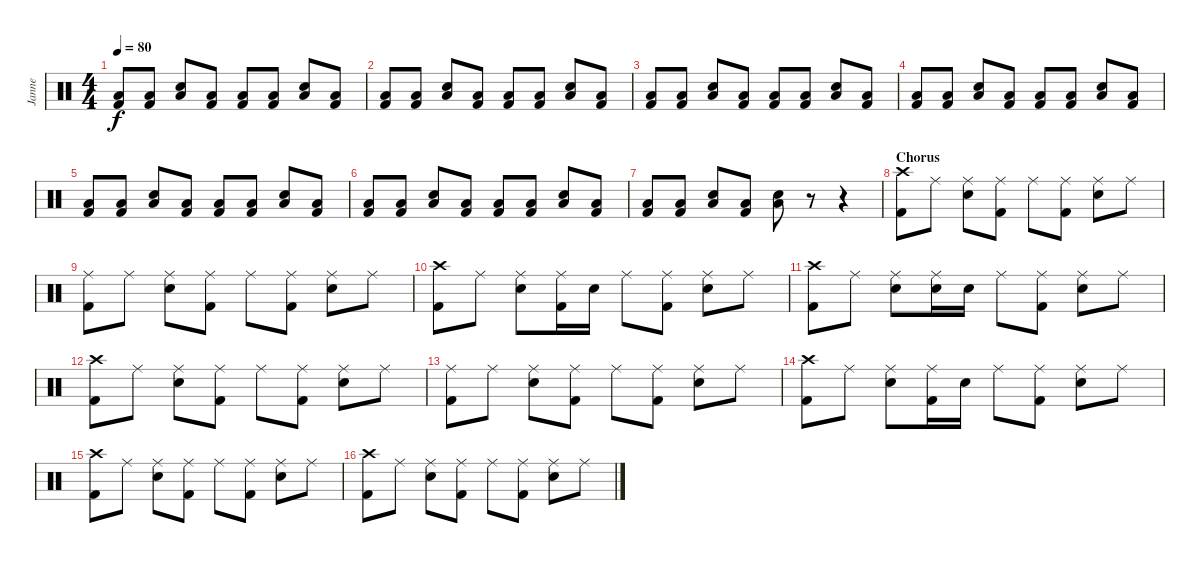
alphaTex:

\track ("Janne" "Janne") {instrument percussion}
\staff {score}
\articulation defaults
\ts (4 4)
\tempo 80
\clef neutral
\ks c
("Low Floor Tom (hit)" "Kick (hit) 2").8{dy f} ("Low Floor Tom (hit)" "Kick (hit) 2").8 ("Low Floor Tom (hit)" "Electric Snare (hit)").8 ("Low Floor Tom (hit)" "Kick (hit) 2").8 ("Low Floor Tom (hit)" "Kick (hit) 2").8 ("Low Floor Tom (hit)" "Kick (hit) 2").8 ("Low Floor Tom (hit)" "Electric Snare (hit)").8 ("Low Floor Tom (hit)" "Kick (hit) 2").8 |
("Low Floor Tom (hit)" "Kick (hit) 2").8 ("Low Floor Tom (hit)" "Kick (hit) 2").8 ("Low Floor Tom (hit)" "Electric Snare (hit)").8 ("Low Floor Tom (hit)" "Kick (hit) 2").8 ("Low Floor Tom (hit)" "Kick (hit) 2").8 ("Low Floor Tom (hit)" "Kick (hit) 2").8 ("Low Floor Tom (hit)" "Electric Snare (hit)").8 ("Low Floor Tom (hit)" "Kick (hit) 2").8 |
("Low Floor Tom (hit)" "Kick (hit) 2").8 ("Low Floor Tom (hit)" "Kick (hit) 2").8 ("Low Floor Tom (hit)" "Electric Snare (hit)").8 ("Low Floor Tom (hit)" "Kick (hit) 2").8 ("Low Floor Tom (hit)" "Kick (hit) 2").8 ("Low Floor Tom (hit)" "Kick (hit) 2").8 ("Low Floor Tom (hit)" "Electric Snare (hit)").8 ("Low Floor Tom (hit)" "Kick (hit) 2").8 |
("Low Floor Tom (hit)" "Kick (hit) 2").8 ("Low Floor Tom (hit)" "Kick (hit) 2").8 ("Low Floor Tom (hit)" "Electric Snare (hit)").8 ("Low Floor Tom (hit)" "Kick (hit) 2").8 ("Low Floor Tom (hit)" "Kick (hit) 2").8 ("Low Floor Tom (hit)" "Kick (hit) 2").8 ("Low Floor Tom (hit)" "Electric Snare (hit)").8 ("Low Floor Tom (hit)" "Kick (hit) 2").8 |
("Low Floor Tom (hit)" "Kick (hit) 2").8 ("Low Floor Tom (hit)" "Kick (hit) 2").8 ("Low Floor Tom (hit)" "Electric Snare (hit)").8 ("Low Floor Tom (hit)" "Kick (hit) 2").8 ("Low Floor Tom (hit)" "Kick (hit) 2").8 ("Low Floor Tom (hit)" "Kick (hit) 2").8 ("Low Floor Tom (hit)" "Electric Snare (hit)").8 ("Low Floor Tom (hit)" "Kick (hit) 2").8 |
("Low Floor Tom (hit)" "Kick (hit) 2").8 ("Low Floor Tom (hit)" "Kick (hit) 2").8 ("Low Floor Tom (hit)" "Electric Snare (hit)").8 ("Low Floor Tom (hit)" "Kick (hit) 2").8 ("Low Floor Tom (hit)" "Kick (hit) 2").8 ("Low Floor Tom (hit)" "Kick (hit) 2").8 ("Low Floor Tom (hit)" "Electric Snare (hit)").8 ("Low Floor Tom (hit)" "Kick (hit) 2").8 |
("Low Floor Tom (hit)" "Kick (hit) 2").8 ("Low Floor Tom (hit)" "Kick (hit) 2").8 ("Low Floor Tom (hit)" "Electric Snare (hit)").8 ("Low Floor Tom (hit)" "Kick (hit) 2").8 ("Low Floor Tom (hit)" "Electric Snare (hit)").8 r.8 r.4 |
\section ("" "Chorus")
("Crash high (hit)" "Kick (hit) 2").8 "Ride (middle)".8 ("Ride (middle)" "Electric Snare (hit)").8 ("Ride (middle)" "Kick (hit) 2").8 "Ride (middle)".8 ("Ride (middle)" "Kick (hit) 2").8 ("Ride (middle)" "Electric Snare (hit)").8 "Ride (middle)".8 |
("Ride (middle)" "Kick (hit) 2").8 "Ride (middle)".8 ("Ride (middle)" "Electric Snare (hit)").8 ("Ride (middle)" "Kick (hit) 2").8 "Ride (middle)".8 ("Ride (middle)" "Kick (hit) 2").8 ("Ride (middle)" "Electric Snare (hit)").8 "Ride (middle)".8 |
("Crash high (hit)" "Kick (hit) 2").8 "Ride (middle)".8 ("Ride (middle)" "Electric Snare (hit)").8 ("Ride (middle)" "Kick (hit) 2").16 "Electric Snare (hit)".16 "Ride (middle)".8 ("Ride (middle)" "Kick (hit) 2").8 ("Ride (middle)" "Electric Snare (hit)").8 "Ride (middle)".8 |
("Crash high (hit)" "Kick (hit) 2").8 "Ride (middle)".8 ("Ride (middle)" "Electric Snare (hit)").8 ("Ride (middle)" "Electric Snare (hit)").16 "Electric Snare (hit)".16 "Ride (middle)".8 ("Ride (middle)" "Kick (hit) 2").8 ("Ride (middle)" "Electric Snare (hit)").8 "Ride (middle)".8 |
("Crash high (hit)" "Kick (hit) 2").8 "Ride (middle)".8 ("Ride (middle)" "Electric Snare (hit)").8 ("Ride (middle)" "Kick (hit) 2").8 "Ride (middle)".8 ("Ride (middle)" "Kick (hit) 2").8 ("Ride (middle)" "Electric Snare (hit)").8 "Ride (middle)".8 |
("Ride (middle)" "Kick (hit) 2").8 "Ride (middle)".8 ("Ride (middle)" "Electric Snare (hit)").8 ("Ride (middle)" "Kick (hit) 2").8 "Ride (middle)".8 ("Ride (middle)" "Kick (hit) 2").8 ("Ride (middle)" "Electric Snare (hit)").8 "Ride (middle)".8 |
("Crash high (hit)" "Kick (hit) 2").8 "Ride (middle)".8 ("Ride (middle)" "Electric Snare (hit)").8 ("Ride (middle)" "Kick (hit) 2").16 "Electric Snare (hit)".16 "Ride (middle)".8 ("Ride (middle)" "Kick (hit) 2").8 ("Ride (middle)" "Electric Snare (hit)").8 "Ride (middle)".8 |
("Crash high (hit)" "Kick (hit) 2").8 "Ride (middle)".8 ("Ride (middle)" "Electric Snare (hit)").8 ("Ride (middle)" "Kick (hit) 2").8 "Ride (middle)".8 ("Ride (middle)" "Kick (hit) 2").8 ("Ride (middle)" "Electric Snare (hit)").8 "Ride (middle)".8 |
("Crash high (hit)" "Kick (hit) 2").8 "Ride (middle)".8 ("Ride (middle)" "Electric Snare (hit)").8 ("Ride (middle)" "Kick (hit) 2").8 "Ride (middle)".8 ("Ride (middle)" "Kick (hit) 2").8 ("Ride (middle)" "Electric Snare (hit)").8 "Ride (middle)".8
